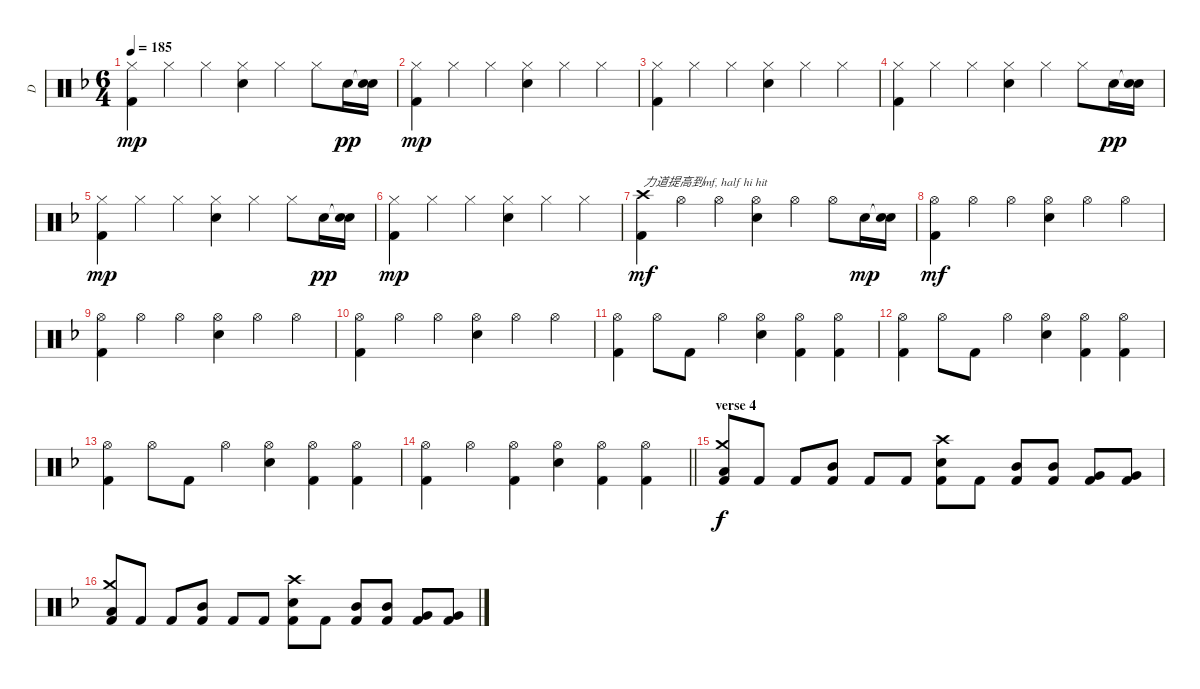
\track ("D" "D") {instrument percussion}
\staff {score}
\articulation defaults
\ts (6 4)
\tempo 185
\clef neutral
\ks dminor
("Hi-Hat (closed)" "Kick (hit) 2").4{dy mp} "Hi-Hat (closed)".4 "Hi-Hat (closed)".4 ("Hi-Hat (closed)" "Snare (hit) 2").4 "Hi-Hat (closed)".4 "Hi-Hat (closed)".8 "Snare (hit) 2".16{dy pp} ("Snare (hit)"{t} "Snare (hit) 2").16 |
("Hi-Hat (closed)" "Kick (hit) 2").4{dy mp} "Hi-Hat (closed)".4 "Hi-Hat (closed)".4 ("Hi-Hat (closed)" "Snare (hit) 2").4 "Hi-Hat (closed)".4 "Hi-Hat (closed)".4 |
("Hi-Hat (closed)" "Kick (hit) 2").4 "Hi-Hat (closed)".4 "Hi-Hat (closed)".4 ("Hi-Hat (closed)" "Snare (hit) 2").4 "Hi-Hat (closed)".4 "Hi-Hat (closed)".4 |
("Hi-Hat (closed)" "Kick (hit) 2").4 "Hi-Hat (closed)".4 "Hi-Hat (closed)".4 ("Hi-Hat (closed)" "Snare (hit) 2").4 "Hi-Hat (closed)".4 "Hi-Hat (closed)".8 "Snare (hit) 2".16{dy pp} ("Snare (hit)"{t} "Snare (hit) 2").16 |
("Hi-Hat (closed)" "Kick (hit) 2").4{dy mp} "Hi-Hat (closed)".4 "Hi-Hat (closed)".4 ("Hi-Hat (closed)" "Snare (hit) 2").4 "Hi-Hat (closed)".4 "Hi-Hat (closed)".8 "Snare (hit) 2".16{dy pp} ("Snare (hit)"{t} "Snare (hit) 2").16 |
("Hi-Hat (closed)" "Kick (hit) 2").4{dy mp} "Hi-Hat (closed)".4 "Hi-Hat (closed)".4 ("Hi-Hat (closed)" "Snare (hit) 2").4 "Hi-Hat (closed)".4 "Hi-Hat (closed)".4 |
("Crash high (hit)" "Kick (hit) 2").4{txt "力道提高到mf, half hi hit" dy mf} "Hi-Hat (open)".4 "Hi-Hat (open)".4 ("Hi-Hat (open)" "Snare (hit) 2").4 "Hi-Hat (open)".4 "Hi-Hat (open)".8 "Snare (hit) 2".16{dy mp} ("Snare (hit)"{t} "Snare (hit) 2").16 |
("Hi-Hat (open)" "Kick (hit) 2").4{dy mf} "Hi-Hat (open)".4 "Hi-Hat (open)".4 ("Hi-Hat (open)" "Snare (hit) 2").4 "Hi-Hat (open)".4 "Hi-Hat (open)".4 |
("Hi-Hat (open)" "Kick (hit) 2").4 "Hi-Hat (open)".4 "Hi-Hat (open)".4 ("Hi-Hat (open)" "Snare (hit) 2").4 "Hi-Hat (open)".4 "Hi-Hat (open)".4 |
("Hi-Hat (open)" "Kick (hit) 2").4 "Hi-Hat (open)".4 "Hi-Hat (open)".4 ("Hi-Hat (open)" "Snare (hit) 2").4 "Hi-Hat (open)".4 "Hi-Hat (open)".4 |
("Hi-Hat (open)" "Kick (hit) 2").4 "Hi-Hat (open)".8 "Kick (hit) 2".8 "Hi-Hat (open)".4 ("Hi-Hat (open)" "Snare (hit) 2").4 ("Hi-Hat (open)" "Kick (hit) 2").4 ("Hi-Hat (open)" "Kick (hit) 2").4 |
("Hi-Hat (open)" "Kick (hit) 2").4 "Hi-Hat (open)".8 "Kick (hit) 2".8 "Hi-Hat (open)".4 ("Hi-Hat (open)" "Snare (hit) 2").4 ("Hi-Hat (open)" "Kick (hit) 2").4 ("Hi-Hat (open)" "Kick (hit) 2").4 |
("Hi-Hat (open)" "Kick (hit) 2").4 "Hi-Hat (open)".8 "Kick (hit) 2".8 "Hi-Hat (open)".4 ("Hi-Hat (open)" "Snare (hit) 2").4 ("Hi-Hat (open)" "Kick (hit) 2").4 ("Hi-Hat (open)" "Kick (hit) 2").4 |
\barLineRight lightlight
("Hi-Hat (open)" "Kick (hit) 2").4 "Hi-Hat (open)".4 ("Hi-Hat (open)" "Kick (hit) 2").4 ("Hi-Hat (open)" "Snare (hit) 2").4 ("Hi-Hat (open)" "Kick (hit) 2").4 ("Hi-Hat (open)" "Kick (hit) 2").4 |
\section ("" "verse 4")
("Crash medium (hit)" "Low Tom (hit)" "Kick (hit) 2").8{dy f} "Kick (hit) 2".8 "Kick (hit) 2".8 ("Mid Tom (hit)" "Kick (hit) 2").8 "Kick (hit) 2".8 "Kick (hit) 2".8 ("Crash high (hit)" "Snare (hit) 2" "Kick (hit) 2").8 "Kick (hit) 2".8 ("Mid Tom (hit)" "Kick (hit) 2").8 ("Mid Tom (hit)" "Kick (hit) 2").8 ("Very Low Tom (hit)" "Kick (hit) 2").8 ("Very Low Tom (hit)" "Kick (hit) 2").8 |
("Crash medium (hit)" "Low Tom (hit)" "Kick (hit) 2").8 "Kick (hit) 2".8 "Kick (hit) 2".8 ("Mid Tom (hit)" "Kick (hit) 2").8 "Kick (hit) 2".8 "Kick (hit) 2".8 ("Crash high (hit)" "Snare (hit) 2" "Kick (hit) 2").8 "Kick (hit) 2".8 ("Mid Tom (hit)" "Kick (hit) 2").8 ("Mid Tom (hit)" "Kick (hit) 2").8 ("Very Low Tom (hit)" "Kick (hit) 2").8 ("Very Low Tom (hit)" "Kick (hit) 2").8
